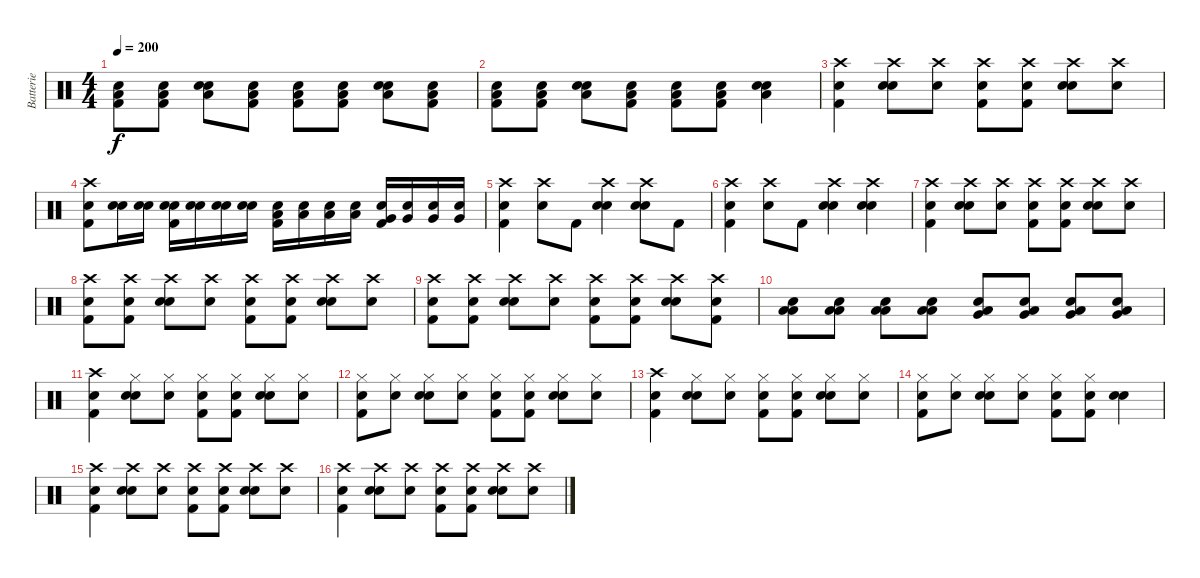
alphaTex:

\track ("Batterie" "Batterie") {instrument percussion}
\staff {score}
\articulation defaults
\ts (4 4)
\tempo 200
\clef neutral
\ks c
("Snare (hit)" "Kick (hit) 2" "Low Floor Tom (hit)").8{dy f} ("Snare (hit)" "Kick (hit) 2" "Low Floor Tom (hit)").8 ("Snare (hit)" "Low Floor Tom (hit)" "Electric Snare (hit)").8 ("Snare (hit)" "Kick (hit) 2" "Low Floor Tom (hit)").8 ("Snare (hit)" "Kick (hit) 2" "Low Floor Tom (hit)").8 ("Snare (hit)" "Kick (hit) 2" "Low Floor Tom (hit)").8 ("Snare (hit)" "Low Floor Tom (hit)" "Electric Snare (hit)").8 ("Snare (hit)" "Kick (hit) 2" "Low Floor Tom (hit)").8 |
("Snare (hit)" "Low Floor Tom (hit)" "Kick (hit) 2").8 ("Snare (hit)" "Low Floor Tom (hit)" "Kick (hit) 2").8 ("Snare (hit)" "Low Floor Tom (hit)" "Electric Snare (hit)").8 ("Snare (hit)" "Low Floor Tom (hit)" "Kick (hit) 2").8 ("Snare (hit)" "Low Floor Tom (hit)" "Kick (hit) 2").8 ("Snare (hit)" "Low Floor Tom (hit)" "Kick (hit) 2").8 ("Snare (hit)" "Electric Snare (hit)" "Low Floor Tom (hit)").4 |
("Snare (hit)" "Crash high (hit)" "Kick (hit) 2").4 ("Snare (hit)" "Crash high (hit)" "Electric Snare (hit)").8 ("Snare (hit)" "Crash high (hit)").8 ("Snare (hit)" "Crash high (hit)" "Kick (hit) 2").8 ("Snare (hit)" "Crash high (hit)" "Kick (hit) 2").8 ("Snare (hit)" "Crash high (hit)" "Electric Snare (hit)").8 ("Snare (hit)" "Crash high (hit)").8 |
("Snare (hit)" "Crash high (hit)" "Kick (hit) 2").8 ("Snare (hit)" "Electric Snare (hit)").16 ("Snare (hit)" "Electric Snare (hit)").16 ("Snare (hit)" "Electric Snare (hit)" "Kick (hit) 2").16 ("Snare (hit)" "Electric Snare (hit)").16 ("Snare (hit)" "Electric Snare (hit)").16 ("Snare (hit)" "Electric Snare (hit)").16 ("Snare (hit)" "Low Floor Tom (hit)" "Kick (hit) 2").16 ("Snare (hit)" "Low Floor Tom (hit)").16 ("Snare (hit)" "Low Floor Tom (hit)").16 ("Snare (hit)" "Low Floor Tom (hit)").16 ("Snare (hit)" "Very Low Tom (hit)" "Kick (hit) 2").16 ("Snare (hit)" "Very Low Tom (hit)").16 ("Snare (hit)" "Very Low Tom (hit)").16 ("Snare (hit)" "Very Low Tom (hit)").16 |
("Snare (hit)" "Crash high (hit)" "Kick (hit) 2").4 ("Snare (hit)" "Crash high (hit)").8 "Kick (hit) 2".8 ("Snare (hit)" "Crash high (hit)" "Electric Snare (hit)").4 ("Snare (hit)" "Crash high (hit)" "Electric Snare (hit)").8 "Kick (hit) 2".8 |
("Snare (hit)" "Crash high (hit)" "Kick (hit) 2").4 ("Snare (hit)" "Crash high (hit)").8 "Kick (hit) 2".8 ("Snare (hit)" "Crash high (hit)" "Electric Snare (hit)").4 ("Snare (hit)" "Crash high (hit)" "Electric Snare (hit)").4 |
("Snare (hit)" "Crash high (hit)" "Kick (hit) 2").4 ("Snare (hit)" "Crash high (hit)" "Electric Snare (hit)").8 ("Snare (hit)" "Crash high (hit)").8 ("Snare (hit)" "Crash high (hit)" "Kick (hit) 2").8 ("Snare (hit)" "Crash high (hit)" "Kick (hit) 2").8 ("Snare (hit)" "Crash high (hit)" "Electric Snare (hit)").8 ("Snare (hit)" "Crash high (hit)").8 |
("Snare (hit)" "Crash high (hit)" "Kick (hit) 2").8 ("Snare (hit)" "Crash high (hit)" "Kick (hit) 2").8 ("Snare (hit)" "Crash high (hit)" "Electric Snare (hit)").8 ("Snare (hit)" "Crash high (hit)").8 ("Snare (hit)" "Crash high (hit)" "Kick (hit) 2").8 ("Snare (hit)" "Crash high (hit)" "Kick (hit) 2").8 ("Snare (hit)" "Crash high (hit)" "Electric Snare (hit)").8 ("Snare (hit)" "Crash high (hit)").8 |
("Snare (hit)" "Crash high (hit)" "Kick (hit) 2").8 ("Snare (hit)" "Crash high (hit)" "Kick (hit) 2").8 ("Snare (hit)" "Crash high (hit)" "Electric Snare (hit)").8 ("Snare (hit)" "Crash high (hit)").8 ("Snare (hit)" "Crash high (hit)" "Kick (hit) 2").8 ("Snare (hit)" "Crash high (hit)" "Kick (hit) 2").8 ("Snare (hit)" "Crash high (hit)" "Electric Snare (hit)").8 ("Snare (hit)" "Crash high (hit)" "Kick (hit) 2").8 |
("Snare (hit)" "Low Floor Tom (hit)" "Low Tom (hit)").8 ("Snare (hit)" "Low Floor Tom (hit)" "Low Tom (hit)").8 ("Snare (hit)" "Low Floor Tom (hit)" "Low Tom (hit)").8 ("Snare (hit)" "Low Floor Tom (hit)" "Low Tom (hit)").8 ("Snare (hit)" "Low Floor Tom (hit)" "Very Low Tom (hit)").8 ("Snare (hit)" "Low Floor Tom (hit)" "Very Low Tom (hit)").8 ("Snare (hit)" "Low Floor Tom (hit)" "Very Low Tom (hit)").8 ("Snare (hit)" "Low Floor Tom (hit)" "Very Low Tom (hit)").8 |
("Snare (hit)" "Crash high (hit)" "Kick (hit) 2").4 ("Snare (hit)" "Hi-Hat (closed)" "Electric Snare (hit)").8 ("Snare (hit)" "Hi-Hat (closed)").8 ("Snare (hit)" "Hi-Hat (closed)" "Kick (hit) 2").8 ("Snare (hit)" "Hi-Hat (closed)" "Kick (hit) 2").8 ("Snare (hit)" "Hi-Hat (closed)" "Electric Snare (hit)").8 ("Snare (hit)" "Hi-Hat (closed)").8 |
("Snare (hit)" "Hi-Hat (closed)" "Kick (hit) 2").8 ("Snare (hit)" "Hi-Hat (closed)").8 ("Snare (hit)" "Hi-Hat (closed)" "Electric Snare (hit)").8 ("Snare (hit)" "Hi-Hat (closed)").8 ("Snare (hit)" "Hi-Hat (closed)" "Kick (hit) 2").8 ("Snare (hit)" "Hi-Hat (closed)" "Kick (hit) 2").8 ("Snare (hit)" "Hi-Hat (closed)" "Electric Snare (hit)").8 ("Snare (hit)" "Hi-Hat (closed)").8 |
("Snare (hit)" "Crash high (hit)" "Kick (hit) 2").4 ("Snare (hit)" "Hi-Hat (closed)" "Electric Snare (hit)").8 ("Snare (hit)" "Hi-Hat (closed)").8 ("Snare (hit)" "Hi-Hat (closed)" "Kick (hit) 2").8 ("Snare (hit)" "Hi-Hat (closed)" "Kick (hit) 2").8 ("Snare (hit)" "Hi-Hat (closed)" "Electric Snare (hit)").8 ("Snare (hit)" "Hi-Hat (closed)").8 |
("Snare (hit)" "Kick (hit) 2" "Hi-Hat (closed)").8 ("Snare (hit)" "Hi-Hat (closed)").8 ("Snare (hit)" "Electric Snare (hit)" "Hi-Hat (closed)").8 ("Snare (hit)" "Hi-Hat (closed)").8 ("Snare (hit)" "Kick (hit) 2" "Hi-Hat (closed)").8 ("Snare (hit)" "Kick (hit) 2" "Hi-Hat (closed)").8 ("Snare (hit)" "Electric Snare (hit)").4 |
("Snare (hit)" "Kick (hit) 2" "Crash high (hit)").4 ("Snare (hit)" "Electric Snare (hit)" "Crash high (hit)").8 ("Snare (hit)" "Crash high (hit)").8 ("Snare (hit)" "Kick (hit) 2" "Crash high (hit)").8 ("Snare (hit)" "Kick (hit) 2" "Crash high (hit)").8 ("Snare (hit)" "Electric Snare (hit)" "Crash high (hit)").8 ("Snare (hit)" "Crash high (hit)").8 |
("Snare (hit)" "Kick (hit) 2" "Crash high (hit)").4 ("Snare (hit)" "Electric Snare (hit)" "Crash high (hit)").8 ("Snare (hit)" "Crash high (hit)").8 ("Snare (hit)" "Kick (hit) 2" "Crash high (hit)").8 ("Snare (hit)" "Kick (hit) 2" "Crash high (hit)").8 ("Snare (hit)" "Electric Snare (hit)" "Crash high (hit)").8 ("Snare (hit)" "Crash high (hit)").8
